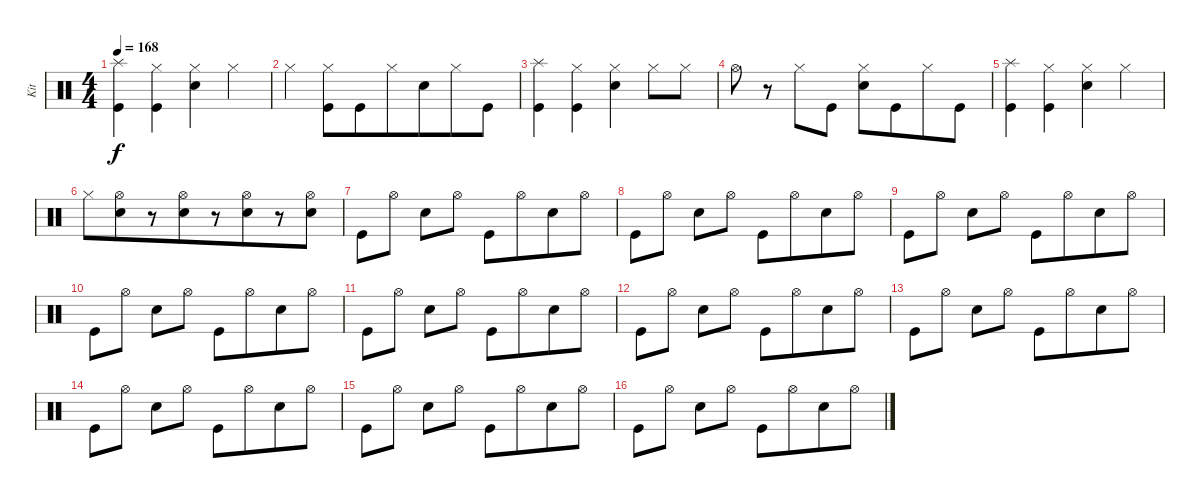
\track ("Kit" "Kit") {instrument percussion}
\staff {score}
\articulation defaults
\ts (4 4)
\tempo 168
\clef neutral
\ks c
("Splash (hit)" "Kick (hit)").4{dy f beam merge} ("Hi-Hat (closed)" "Kick (hit)").4{beam merge} ("Hi-Hat (closed)" "Electric Snare (hit)").4 "Hi-Hat (closed)".4 |
"Hi-Hat (closed)".4 ("Hi-Hat (closed)" "Kick (hit)").8 "Kick (hit)".8{beam merge} "Hi-Hat (closed)".8 "Electric Snare (hit)".8{beam merge} "Hi-Hat (closed)".8{beam merge} "Kick (hit)".8 |
("Splash (hit)" "Kick (hit)").4{beam merge} ("Hi-Hat (closed)" "Kick (hit)").4{beam merge} ("Hi-Hat (closed)" "Electric Snare (hit)").4 "Hi-Hat (closed)".8 "Hi-Hat (closed)".8 |
"Hi-Hat (open)".8 r.8{beam merge} "Hi-Hat (closed)".8 "Kick (hit)".8 ("Hi-Hat (closed)" "Electric Snare (hit)").8 "Kick (hit)".8{beam merge} "Hi-Hat (closed)".8{beam merge} "Kick (hit)".8 |
("Splash (hit)" "Kick (hit)").4{beam merge} ("Hi-Hat (closed)" "Kick (hit)").4{beam merge} ("Hi-Hat (closed)" "Electric Snare (hit)").4 "Hi-Hat (closed)".4 |
"Hi-Hat (closed)".8 ("Hi-Hat (open)" "Electric Snare (hit)").8{beam merge} r.8 ("Hi-Hat (open)" "Electric Snare (hit)").8{beam merge} r.8 ("Hi-Hat (open)" "Electric Snare (hit)").8{beam merge} r.8 ("Hi-Hat (open)" "Electric Snare (hit)").8 |
"Kick (hit)".8 "Hi-Hat (open)".8 "Electric Snare (hit)".8 "Hi-Hat (open)".8 "Kick (hit)".8 "Hi-Hat (open)".8{beam merge} "Electric Snare (hit)".8 "Hi-Hat (open)".8 |
"Kick (hit)".8 "Hi-Hat (open)".8 "Electric Snare (hit)".8 "Hi-Hat (open)".8 "Kick (hit)".8 "Hi-Hat (open)".8{beam merge} "Electric Snare (hit)".8 "Hi-Hat (open)".8 |
"Kick (hit)".8 "Hi-Hat (open)".8 "Electric Snare (hit)".8 "Hi-Hat (open)".8 "Kick (hit)".8 "Hi-Hat (open)".8{beam merge} "Electric Snare (hit)".8 "Hi-Hat (open)".8 |
"Kick (hit)".8 "Hi-Hat (open)".8 "Electric Snare (hit)".8 "Hi-Hat (open)".8 "Kick (hit)".8 "Hi-Hat (open)".8{beam merge} "Electric Snare (hit)".8 "Hi-Hat (open)".8 |
"Kick (hit)".8 "Hi-Hat (open)".8 "Electric Snare (hit)".8 "Hi-Hat (open)".8 "Kick (hit)".8 "Hi-Hat (open)".8{beam merge} "Electric Snare (hit)".8 "Hi-Hat (open)".8 |
"Kick (hit)".8 "Hi-Hat (open)".8 "Electric Snare (hit)".8 "Hi-Hat (open)".8 "Kick (hit)".8 "Hi-Hat (open)".8{beam merge} "Electric Snare (hit)".8 "Hi-Hat (open)".8 |
"Kick (hit)".8 "Hi-Hat (open)".8 "Electric Snare (hit)".8 "Hi-Hat (open)".8 "Kick (hit)".8 "Hi-Hat (open)".8{beam merge} "Electric Snare (hit)".8 "Hi-Hat (open)".8 |
"Kick (hit)".8 "Hi-Hat (open)".8 "Electric Snare (hit)".8 "Hi-Hat (open)".8 "Kick (hit)".8 "Hi-Hat (open)".8{beam merge} "Electric Snare (hit)".8 "Hi-Hat (open)".8 |
"Kick (hit)".8 "Hi-Hat (open)".8 "Electric Snare (hit)".8 "Hi-Hat (open)".8 "Kick (hit)".8 "Hi-Hat (open)".8{beam merge} "Electric Snare (hit)".8 "Hi-Hat (open)".8 |
"Kick (hit)".8 "Hi-Hat (open)".8 "Electric Snare (hit)".8 "Hi-Hat (open)".8 "Kick (hit)".8 "Hi-Hat (open)".8{beam merge} "Electric Snare (hit)".8 "Hi-Hat (open)".8
